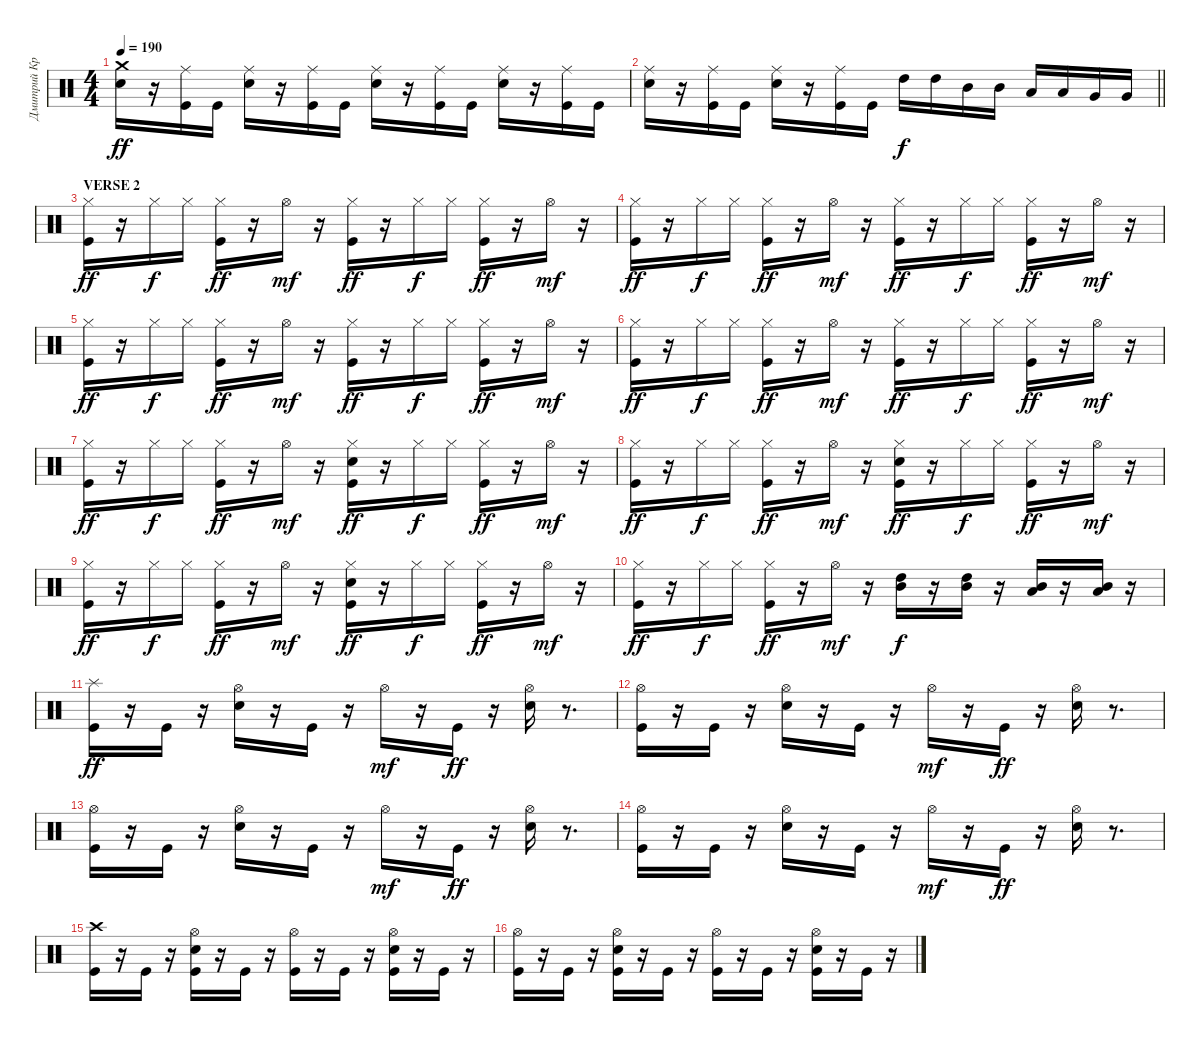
\track ("Дмитрий Кривенков" "Дмитрий Кр") {instrument percussion}
\staff {score}
\articulation defaults
\ts (4 4)
\tempo 190
\clef neutral
\ks c
("Crash medium (hit)" "Snare (hit) 2").16{dy ff} r.16 ("Ride (middle)" "Kick (hit)").16 "Kick (hit)".16 ("Ride (middle)" "Snare (hit) 2").16 r.16 ("Ride (middle)" "Kick (hit)").16 "Kick (hit)".16 ("Ride (middle)" "Snare (hit) 2").16 r.16 ("Ride (middle)" "Kick (hit)").16 "Kick (hit)".16 ("Ride (middle)" "Snare (hit) 2").16 r.16 ("Ride (middle)" "Kick (hit)").16 "Kick (hit)".16 |
\barLineRight lightlight
("Ride (middle)" "Snare (hit) 2").16 r.16 ("Ride (middle)" "Kick (hit)").16 "Kick (hit)".16 ("Ride (middle)" "Snare (hit) 2").16 r.16 ("Ride (middle)" "Kick (hit)").16 "Kick (hit)".16 "High Tom (hit)".16{dy f} "High Tom (hit)".16 "Mid Tom (hit)".16 "Mid Tom (hit)".16 "Low Tom (hit)".16 "Low Tom (hit)".16 "Very Low Tom (hit)".16 "Very Low Tom (hit)".16 |
\section ("" "VERSE 2")
("Kick (hit)" "Hi-Hat (closed)").16{dy ff} r.16 "Hi-Hat (closed)".16{dy f} "Hi-Hat (closed)".16 ("Hi-Hat (closed)" "Kick (hit)").16{dy ff} r.16 "Hi-Hat (open)".16{dy mf} r.16 ("Kick (hit)" "Hi-Hat (closed)").16{dy ff} r.16 "Hi-Hat (closed)".16{dy f} "Hi-Hat (closed)".16 ("Kick (hit)" "Hi-Hat (closed)").16{dy ff} r.16 "Hi-Hat (open)".16{dy mf} r.16 |
("Hi-Hat (closed)" "Kick (hit)").16{dy ff} r.16 "Hi-Hat (closed)".16{dy f} "Hi-Hat (closed)".16 ("Kick (hit)" "Hi-Hat (closed)").16{dy ff} r.16 "Hi-Hat (open)".16{dy mf} r.16 ("Hi-Hat (closed)" "Kick (hit)").16{dy ff} r.16 "Hi-Hat (closed)".16{dy f} "Hi-Hat (closed)".16 ("Kick (hit)" "Hi-Hat (closed)").16{dy ff} r.16 "Hi-Hat (open)".16{dy mf} r.16 |
("Hi-Hat (closed)" "Kick (hit)").16{dy ff} r.16 "Hi-Hat (closed)".16{dy f} "Hi-Hat (closed)".16 ("Hi-Hat (closed)" "Kick (hit)").16{dy ff} r.16 "Hi-Hat (open)".16{dy mf} r.16 ("Hi-Hat (closed)" "Kick (hit)").16{dy ff} r.16 "Hi-Hat (closed)".16{dy f} "Hi-Hat (closed)".16 ("Hi-Hat (closed)" "Kick (hit)").16{dy ff} r.16 "Hi-Hat (open)".16{dy mf} r.16 |
("Hi-Hat (closed)" "Kick (hit)").16{dy ff} r.16 "Hi-Hat (closed)".16{dy f} "Hi-Hat (closed)".16 ("Kick (hit)" "Hi-Hat (closed)").16{dy ff} r.16 "Hi-Hat (open)".16{dy mf} r.16 ("Hi-Hat (closed)" "Kick (hit)").16{dy ff} r.16 "Hi-Hat (closed)".16{dy f} "Hi-Hat (closed)".16 ("Kick (hit)" "Hi-Hat (closed)").16{dy ff} r.16 "Hi-Hat (open)".16{dy mf} r.16 |
("Kick (hit)" "Hi-Hat (closed)").16{dy ff} r.16 "Hi-Hat (closed)".16{dy f} "Hi-Hat (closed)".16 ("Hi-Hat (closed)" "Kick (hit)").16{dy ff} r.16 "Hi-Hat (open)".16{dy mf} r.16 ("Kick (hit)" "Hi-Hat (closed)" "Snare (hit) 2").16{dy ff} r.16 "Hi-Hat (closed)".16{dy f} "Hi-Hat (closed)".16 ("Kick (hit)" "Hi-Hat (closed)").16{dy ff} r.16 "Hi-Hat (open)".16{dy mf} r.16 |
("Hi-Hat (closed)" "Kick (hit)").16{dy ff} r.16 "Hi-Hat (closed)".16{dy f} "Hi-Hat (closed)".16 ("Kick (hit)" "Hi-Hat (closed)").16{dy ff} r.16 "Hi-Hat (open)".16{dy mf} r.16 ("Snare (hit) 2" "Hi-Hat (closed)" "Kick (hit)").16{dy ff} r.16 "Hi-Hat (closed)".16{dy f} "Hi-Hat (closed)".16 ("Kick (hit)" "Hi-Hat (closed)").16{dy ff} r.16 "Hi-Hat (open)".16{dy mf} r.16 |
("Hi-Hat (closed)" "Kick (hit)").16{dy ff} r.16 "Hi-Hat (closed)".16{dy f} "Hi-Hat (closed)".16 ("Hi-Hat (closed)" "Kick (hit)").16{dy ff} r.16 "Hi-Hat (open)".16{dy mf} r.16 ("Snare (hit) 2" "Hi-Hat (closed)" "Kick (hit)").16{dy ff} r.16 "Hi-Hat (closed)".16{dy f} "Hi-Hat (closed)".16 ("Hi-Hat (closed)" "Kick (hit)").16{dy ff} r.16 "Hi-Hat (open)".16{dy mf} r.16 |
("Hi-Hat (closed)" "Kick (hit)").16{dy ff} r.16 "Hi-Hat (closed)".16{dy f} "Hi-Hat (closed)".16 ("Kick (hit)" "Hi-Hat (closed)").16{dy ff} r.16 "Hi-Hat (open)".16{dy mf} r.16 ("High Tom (hit)" "Mid Tom (hit)").16{dy f} r.16 ("Mid Tom (hit)" "High Tom (hit)").16 r.16 ("Low Tom (hit)" "Mid Tom (hit)").16 r.16 ("Low Tom (hit)" "Mid Tom (hit)").16 r.16 |
("Splash (hit)" "Kick (hit)").16{dy ff} r.16 "Kick (hit)".16 r.16 ("Hi-Hat (open)" "Snare (hit) 2").16 r.16 "Kick (hit)".16 r.16 "Hi-Hat (open)".16{dy mf} r.16 "Kick (hit)".16{dy ff} r.16 ("Hi-Hat (open)" "Snare (hit) 2").16 r.8{d} |
("Hi-Hat (open)" "Kick (hit)").16 r.16 "Kick (hit)".16 r.16 ("Hi-Hat (open)" "Snare (hit) 2").16 r.16 "Kick (hit)".16 r.16 "Hi-Hat (open)".16{dy mf} r.16 "Kick (hit)".16{dy ff} r.16 ("Hi-Hat (open)" "Snare (hit) 2").16 r.8{d} |
("Hi-Hat (open)" "Kick (hit)").16 r.16 "Kick (hit)".16 r.16 ("Hi-Hat (open)" "Snare (hit) 2").16 r.16 "Kick (hit)".16 r.16 "Hi-Hat (open)".16{dy mf} r.16 "Kick (hit)".16{dy ff} r.16 ("Hi-Hat (open)" "Snare (hit) 2").16 r.8{d} |
("Hi-Hat (open)" "Kick (hit)").16 r.16 "Kick (hit)".16 r.16 ("Hi-Hat (open)" "Snare (hit) 2").16 r.16 "Kick (hit)".16 r.16 "Hi-Hat (open)".16{dy mf} r.16 "Kick (hit)".16{dy ff} r.16 ("Hi-Hat (open)" "Snare (hit) 2").16 r.8{d} |
("Crash high (hit)" "Kick (hit)").16 r.16 "Kick (hit)".16 r.16 ("Hi-Hat (open)" "Kick (hit)" "Snare (hit) 2").16 r.16 "Kick (hit)".16 r.16 ("Hi-Hat (open)" "Kick (hit)").16 r.16 "Kick (hit)".16 r.16 ("Hi-Hat (open)" "Snare (hit) 2" "Kick (hit)").16 r.16 "Kick (hit)".16 r.16 |
("Hi-Hat (open)" "Kick (hit)").16 r.16 "Kick (hit)".16 r.16 ("Hi-Hat (open)" "Snare (hit) 2" "Kick (hit)").16 r.16 "Kick (hit)".16 r.16 ("Hi-Hat (open)" "Kick (hit)").16 r.16 "Kick (hit)".16 r.16 ("Hi-Hat (open)" "Snare (hit) 2" "Kick (hit)").16 r.16 "Kick (hit)".16 r.16
